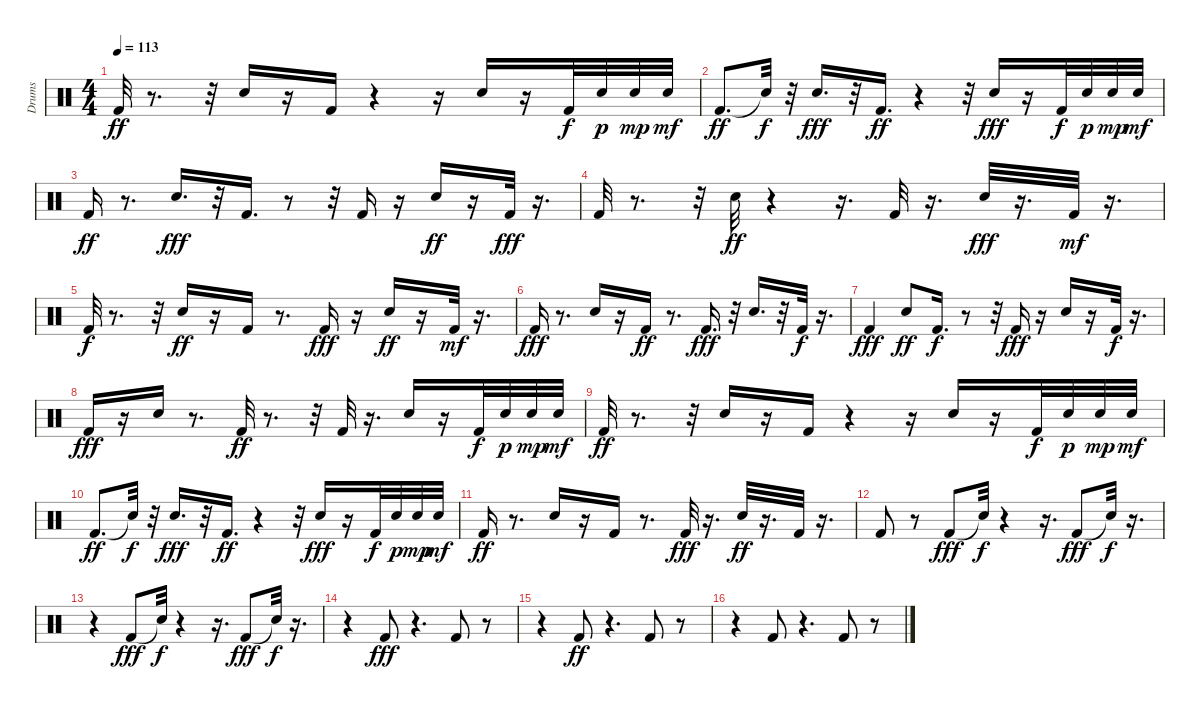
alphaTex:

\track ("Drums" "Drums") {instrument percussion}
\staff {score}
\articulation defaults
\ts (4 4)
\tempo 113
\clef neutral
\ks c "Kick (hit) 2".32{dy ff}
r.8{d} r.32 "Snare (hit) 2".16 r.16 "Kick (hit) 2".16 r.4 r.16 "Snare (hit) 2".16 r.16 "Kick (hit) 2".32{dy f} "Snare (hit) 2".32{dy p} "Snare (hit) 2".32{dy mp} "Snare (hit) 2".32{dy mf} |
"Kick (hit) 2".8{d dy ff} "Snare (hit)"{t}.32{dy f} r.32 "Snare (hit) 2".16{d dy fff} r.32 "Kick (hit) 2".16{d dy ff} r.4 r.32 "Snare (hit) 2".16{dy fff} r.16 "Kick (hit) 2".32{dy f} "Snare (hit) 2".32{dy p} "Snare (hit) 2".32{dy mp} "Snare (hit) 2".32{dy mf} |
"Kick (hit) 2".16{dy ff} r.8{d} "Snare (hit) 2".16{d dy fff} r.32 "Kick (hit) 2".16{d} r.8 r.32 "Kick (hit) 2".16 r.16 "Snare (hit) 2".16{dy ff} r.16 "Kick (hit) 2".32{dy fff} r.16{d} |
"Kick (hit) 2".32 r.8{d} r.32 "Snare (hit) 2".32{dy ff} r.4 r.16{d} "Kick (hit) 2".32 r.16{d} "Snare (hit) 2".32{dy fff} r.16{d} "Kick (hit) 2".32{dy mf} r.16{d} |
"Kick (hit) 2".32{dy f} r.8{d} r.32 "Snare (hit) 2".16{dy ff} r.16 "Kick (hit) 2".16 r.8{d} "Kick (hit) 2".16{dy fff} r.16 "Snare (hit) 2".16{dy ff} r.16 "Kick (hit) 2".32{dy mf} r.16{d} |
"Kick (hit) 2".16{dy fff} r.8{d} "Snare (hit) 2".16 r.16 "Kick (hit) 2".16{dy ff} r.8{d} "Kick (hit) 2".16{d dy fff} r.32 "Snare (hit) 2".16{d} r.32 "Kick (hit) 2".32{dy f} r.16{d} |
"Kick (hit) 2".4{dy fff} "Snare (hit) 2".8{dy ff} "Kick (hit) 2".16{d dy f} r.8 r.32 "Kick (hit) 2".16{dy fff} r.16 "Snare (hit) 2".16 r.16 "Kick (hit) 2".32{dy f} r.16{d} |
"Kick (hit) 2".16{dy fff} r.16 "Snare (hit) 2".16 r.8{d} "Kick (hit) 2".32{dy ff} r.8{d} r.32 "Kick (hit) 2".32 r.16{d} "Snare (hit) 2".16 r.16 "Kick (hit) 2".32{dy f} "Snare (hit) 2".32{dy p} "Snare (hit) 2".32{dy mp} "Snare (hit) 2".32{dy mf} |
"Kick (hit) 2".32{dy ff} r.8{d} r.32 "Snare (hit) 2".16 r.16 "Kick (hit) 2".16 r.4 r.16 "Snare (hit) 2".16 r.16 "Kick (hit) 2".32{dy f} "Snare (hit) 2".32{dy p} "Snare (hit) 2".32{dy mp} "Snare (hit) 2".32{dy mf} |
"Kick (hit) 2".8{d dy ff} "Snare (hit)"{t}.32{dy f} r.32 "Snare (hit) 2".16{d dy fff} r.32 "Kick (hit) 2".16{d dy ff} r.4 r.32 "Snare (hit) 2".16{dy fff} r.16 "Kick (hit) 2".32{dy f} "Snare (hit) 2".32{dy p} "Snare (hit) 2".32{dy mp} "Snare (hit) 2".32{dy mf} |
"Kick (hit) 2".16{dy ff} r.8{d} "Snare (hit) 2".16 r.16 "Kick (hit) 2".16 r.8{d} "Kick (hit) 2".32{dy fff} r.16{d} "Snare (hit) 2".32{dy ff} r.16{d} "Kick (hit) 2".32 r.16{d} |
"Kick (hit) 2".8 r.8 "Kick (hit) 2".8{dy fff} "Snare (hit)"{t}.32{dy f} r.4 r.16{d} "Kick (hit) 2".8{dy fff} "Snare (hit)"{t}.32{dy f} r.16{d} |
r.4 "Kick (hit) 2".8{dy fff} "Snare (hit)"{t}.32{dy f} r.4 r.16{d} "Kick (hit) 2".8{dy fff} "Snare (hit)"{t}.32{dy f} r.16{d} |
r.4 "Kick (hit) 2".8{dy fff} r.4{d} "Kick (hit) 2".8 r.8 |
r.4 "Kick (hit) 2".8{dy ff} r.4{d} "Kick (hit) 2".8 r.8 |
r.4 "Kick (hit) 2".8 r.4{d} "Kick (hit) 2".8 r.8
